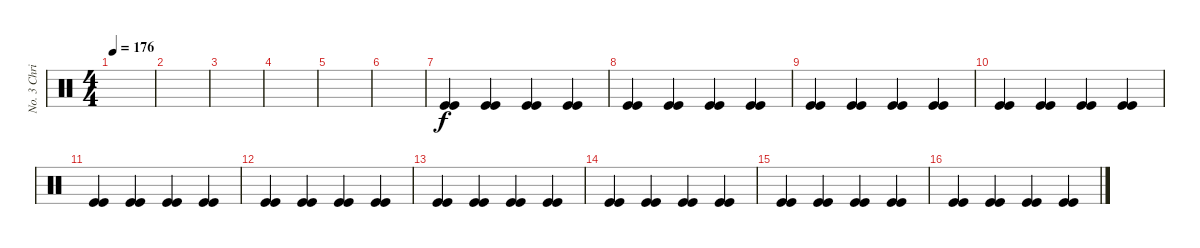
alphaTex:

\track ("No. 3 Chris" "No. 3 Chri") {instrument percussion}
\staff {score}
\articulation defaults
\ts (4 4)
\tempo 176
\clef neutral
\ks c
|
|
|
|
|
|
("Kick (hit)" "Kick (hit)").4 ("Kick (hit)" "Kick (hit)").4 ("Kick (hit)" "Kick (hit)").4 ("Kick (hit)" "Kick (hit)").4 |
("Kick (hit)" "Kick (hit)").4 ("Kick (hit)" "Kick (hit)").4 ("Kick (hit)" "Kick (hit)").4 ("Kick (hit)" "Kick (hit)").4 |
("Kick (hit)" "Kick (hit)").4 ("Kick (hit)" "Kick (hit)").4 ("Kick (hit)" "Kick (hit)").4 ("Kick (hit)" "Kick (hit)").4 |
("Kick (hit)" "Kick (hit)").4 ("Kick (hit)" "Kick (hit)").4 ("Kick (hit)" "Kick (hit)").4 ("Kick (hit)" "Kick (hit)").4 |
("Kick (hit)" "Kick (hit)").4 ("Kick (hit)" "Kick (hit)").4 ("Kick (hit)" "Kick (hit)").4 ("Kick (hit)" "Kick (hit)").4 |
("Kick (hit)" "Kick (hit)").4 ("Kick (hit)" "Kick (hit)").4 ("Kick (hit)" "Kick (hit)").4 ("Kick (hit)" "Kick (hit)").4 |
("Kick (hit)" "Kick (hit)").4 ("Kick (hit)" "Kick (hit)").4 ("Kick (hit)" "Kick (hit)").4 ("Kick (hit)" "Kick (hit)").4 |
("Kick (hit)" "Kick (hit)").4 ("Kick (hit)" "Kick (hit)").4 ("Kick (hit)" "Kick (hit)").4 ("Kick (hit)" "Kick (hit)").4 |
("Kick (hit)" "Kick (hit)").4 ("Kick (hit)" "Kick (hit)").4 ("Kick (hit)" "Kick (hit)").4 ("Kick (hit)" "Kick (hit)").4 |
("Kick (hit)" "Kick (hit)").4 ("Kick (hit)" "Kick (hit)").4 ("Kick (hit)" "Kick (hit)").4 ("Kick (hit)" "Kick (hit)").4
